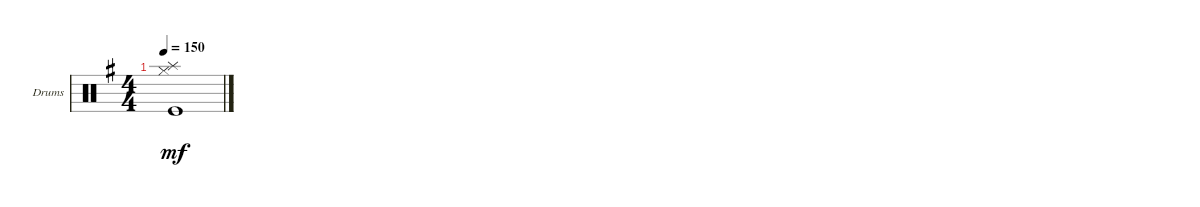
\defaultSystemsLayout 4
\bracketExtendMode groupsimilarinstruments
\firstSystemTrackNameOrientation horizontal
\otherSystemsTrackNameOrientation horizontal
\track ("Drumkit" "Drums") {instrument percussion}
\staff {score}
\articulation defaults
\ts (4 4)
\tempo 150
\clef neutral
\ks g
("Kick (hit)" "Hi-Hat (closed)" "Splash (hit)").1{dy mf}
